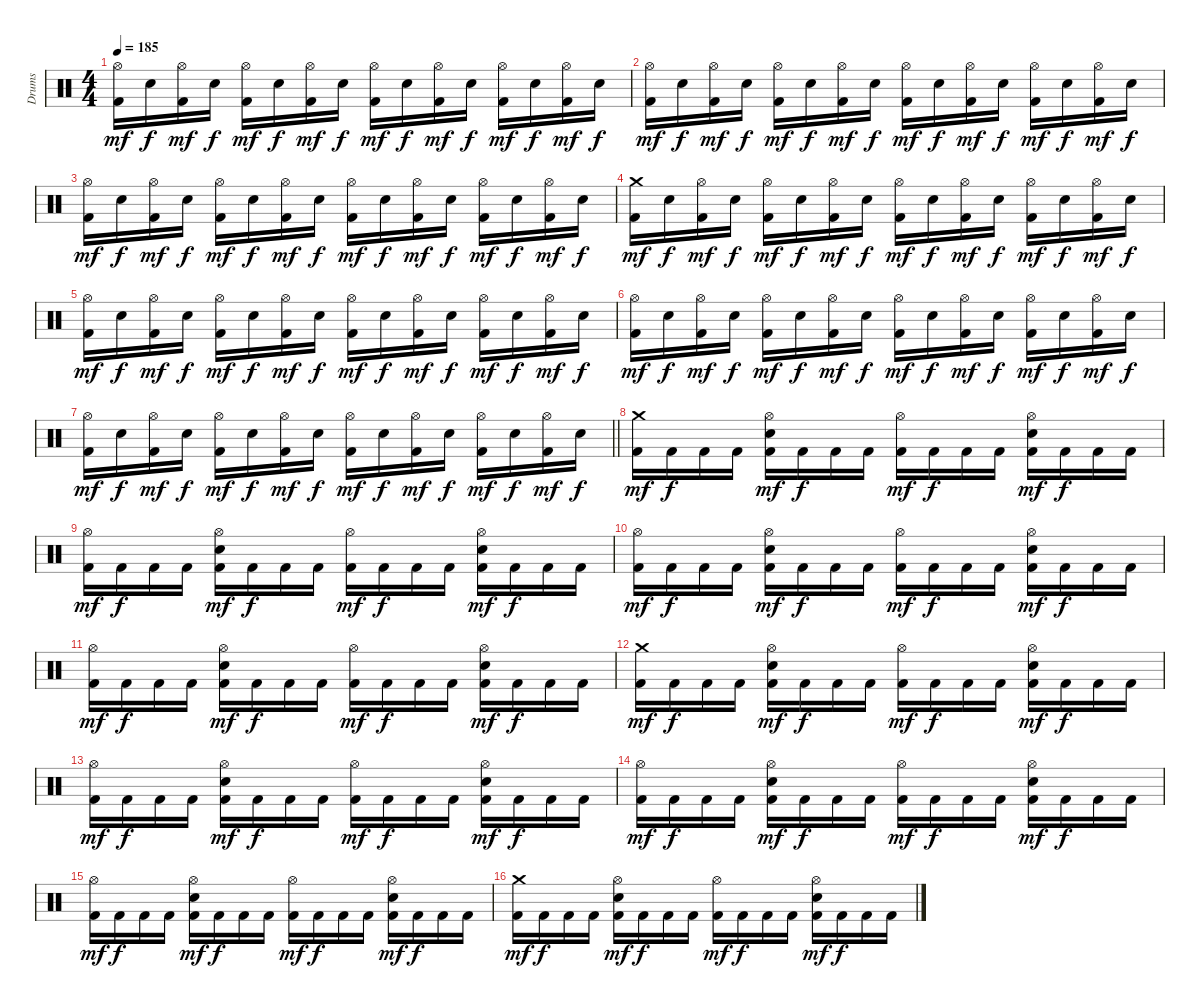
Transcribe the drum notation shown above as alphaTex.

\track ("Drums" "Drums") {instrument percussion}
\staff {score}
\articulation defaults
\ts (4 4)
\tempo 185
\clef neutral
\ks c
("Hi-Hat (open)" "Kick (hit) 2").16{dy mf} "Electric Snare (hit)".16{dy f} ("Hi-Hat (open)" "Kick (hit) 2").16{dy mf} "Electric Snare (hit)".16{dy f} ("Hi-Hat (open)" "Kick (hit) 2").16{dy mf} "Electric Snare (hit)".16{dy f} ("Hi-Hat (open)" "Kick (hit) 2").16{dy mf} "Electric Snare (hit)".16{dy f} ("Hi-Hat (open)" "Kick (hit) 2").16{dy mf} "Electric Snare (hit)".16{dy f} ("Hi-Hat (open)" "Kick (hit) 2").16{dy mf} "Electric Snare (hit)".16{dy f} ("Hi-Hat (open)" "Kick (hit) 2").16{dy mf} "Electric Snare (hit)".16{dy f} ("Hi-Hat (open)" "Kick (hit) 2").16{dy mf} "Electric Snare (hit)".16{dy f} |
("Hi-Hat (open)" "Kick (hit) 2").16{dy mf} "Electric Snare (hit)".16{dy f} ("Hi-Hat (open)" "Kick (hit) 2").16{dy mf} "Electric Snare (hit)".16{dy f} ("Hi-Hat (open)" "Kick (hit) 2").16{dy mf} "Electric Snare (hit)".16{dy f} ("Hi-Hat (open)" "Kick (hit) 2").16{dy mf} "Electric Snare (hit)".16{dy f} ("Hi-Hat (open)" "Kick (hit) 2").16{dy mf} "Electric Snare (hit)".16{dy f} ("Hi-Hat (open)" "Kick (hit) 2").16{dy mf} "Electric Snare (hit)".16{dy f} ("Hi-Hat (open)" "Kick (hit) 2").16{dy mf} "Electric Snare (hit)".16{dy f} ("Hi-Hat (open)" "Kick (hit) 2").16{dy mf} "Electric Snare (hit)".16{dy f} |
("Hi-Hat (open)" "Kick (hit) 2").16{dy mf} "Electric Snare (hit)".16{dy f} ("Hi-Hat (open)" "Kick (hit) 2").16{dy mf} "Electric Snare (hit)".16{dy f} ("Hi-Hat (open)" "Kick (hit) 2").16{dy mf} "Electric Snare (hit)".16{dy f} ("Hi-Hat (open)" "Kick (hit) 2").16{dy mf} "Electric Snare (hit)".16{dy f} ("Hi-Hat (open)" "Kick (hit) 2").16{dy mf} "Electric Snare (hit)".16{dy f} ("Hi-Hat (open)" "Kick (hit) 2").16{dy mf} "Electric Snare (hit)".16{dy f} ("Hi-Hat (open)" "Kick (hit) 2").16{dy mf} "Electric Snare (hit)".16{dy f} ("Hi-Hat (open)" "Kick (hit) 2").16{dy mf} "Electric Snare (hit)".16{dy f} |
("Crash medium (hit)" "Kick (hit) 2").16{dy mf} "Electric Snare (hit)".16{dy f} ("Hi-Hat (open)" "Kick (hit) 2").16{dy mf} "Electric Snare (hit)".16{dy f} ("Hi-Hat (open)" "Kick (hit) 2").16{dy mf} "Electric Snare (hit)".16{dy f} ("Hi-Hat (open)" "Kick (hit) 2").16{dy mf} "Electric Snare (hit)".16{dy f} ("Hi-Hat (open)" "Kick (hit) 2").16{dy mf} "Electric Snare (hit)".16{dy f} ("Hi-Hat (open)" "Kick (hit) 2").16{dy mf} "Electric Snare (hit)".16{dy f} ("Hi-Hat (open)" "Kick (hit) 2").16{dy mf} "Electric Snare (hit)".16{dy f} ("Hi-Hat (open)" "Kick (hit) 2").16{dy mf} "Electric Snare (hit)".16{dy f} |
("Hi-Hat (open)" "Kick (hit) 2").16{dy mf} "Electric Snare (hit)".16{dy f} ("Hi-Hat (open)" "Kick (hit) 2").16{dy mf} "Electric Snare (hit)".16{dy f} ("Hi-Hat (open)" "Kick (hit) 2").16{dy mf} "Electric Snare (hit)".16{dy f} ("Hi-Hat (open)" "Kick (hit) 2").16{dy mf} "Electric Snare (hit)".16{dy f} ("Hi-Hat (open)" "Kick (hit) 2").16{dy mf} "Electric Snare (hit)".16{dy f} ("Hi-Hat (open)" "Kick (hit) 2").16{dy mf} "Electric Snare (hit)".16{dy f} ("Hi-Hat (open)" "Kick (hit) 2").16{dy mf} "Electric Snare (hit)".16{dy f} ("Hi-Hat (open)" "Kick (hit) 2").16{dy mf} "Electric Snare (hit)".16{dy f} |
("Hi-Hat (open)" "Kick (hit) 2").16{dy mf} "Electric Snare (hit)".16{dy f} ("Hi-Hat (open)" "Kick (hit) 2").16{dy mf} "Electric Snare (hit)".16{dy f} ("Hi-Hat (open)" "Kick (hit) 2").16{dy mf} "Electric Snare (hit)".16{dy f} ("Hi-Hat (open)" "Kick (hit) 2").16{dy mf} "Electric Snare (hit)".16{dy f} ("Hi-Hat (open)" "Kick (hit) 2").16{dy mf} "Electric Snare (hit)".16{dy f} ("Hi-Hat (open)" "Kick (hit) 2").16{dy mf} "Electric Snare (hit)".16{dy f} ("Hi-Hat (open)" "Kick (hit) 2").16{dy mf} "Electric Snare (hit)".16{dy f} ("Hi-Hat (open)" "Kick (hit) 2").16{dy mf} "Electric Snare (hit)".16{dy f} |
\barLineRight lightlight
("Hi-Hat (open)" "Kick (hit) 2").16{dy mf} "Electric Snare (hit)".16{dy f} ("Hi-Hat (open)" "Kick (hit) 2").16{dy mf} "Electric Snare (hit)".16{dy f} ("Hi-Hat (open)" "Kick (hit) 2").16{dy mf} "Electric Snare (hit)".16{dy f} ("Hi-Hat (open)" "Kick (hit) 2").16{dy mf} "Electric Snare (hit)".16{dy f} ("Hi-Hat (open)" "Kick (hit) 2").16{dy mf} "Electric Snare (hit)".16{dy f} ("Hi-Hat (open)" "Kick (hit) 2").16{dy mf} "Electric Snare (hit)".16{dy f} ("Hi-Hat (open)" "Kick (hit) 2").16{dy mf} "Electric Snare (hit)".16{dy f} ("Hi-Hat (open)" "Kick (hit) 2").16{dy mf} "Electric Snare (hit)".16{dy f} |
\section ("" "")
("Crash medium (hit)" "Kick (hit) 2").16{dy mf} "Kick (hit) 2".16{dy f} "Kick (hit) 2".16 "Kick (hit) 2".16 ("Hi-Hat (open)" "Electric Snare (hit)" "Kick (hit) 2").16{dy mf} "Kick (hit) 2".16{dy f} "Kick (hit) 2".16 "Kick (hit) 2".16 ("Hi-Hat (open)" "Kick (hit) 2").16{dy mf} "Kick (hit) 2".16{dy f} "Kick (hit) 2".16 "Kick (hit) 2".16 ("Hi-Hat (open)" "Electric Snare (hit)" "Kick (hit) 2").16{dy mf} "Kick (hit) 2".16{dy f} "Kick (hit) 2".16 "Kick (hit) 2".16 |
("Hi-Hat (open)" "Kick (hit) 2").16{dy mf} "Kick (hit) 2".16{dy f} "Kick (hit) 2".16 "Kick (hit) 2".16 ("Hi-Hat (open)" "Electric Snare (hit)" "Kick (hit) 2").16{dy mf} "Kick (hit) 2".16{dy f} "Kick (hit) 2".16 "Kick (hit) 2".16 ("Hi-Hat (open)" "Kick (hit) 2").16{dy mf} "Kick (hit) 2".16{dy f} "Kick (hit) 2".16 "Kick (hit) 2".16 ("Hi-Hat (open)" "Electric Snare (hit)" "Kick (hit) 2").16{dy mf} "Kick (hit) 2".16{dy f} "Kick (hit) 2".16 "Kick (hit) 2".16 |
("Hi-Hat (open)" "Kick (hit) 2").16{dy mf} "Kick (hit) 2".16{dy f} "Kick (hit) 2".16 "Kick (hit) 2".16 ("Hi-Hat (open)" "Electric Snare (hit)" "Kick (hit) 2").16{dy mf} "Kick (hit) 2".16{dy f} "Kick (hit) 2".16 "Kick (hit) 2".16 ("Hi-Hat (open)" "Kick (hit) 2").16{dy mf} "Kick (hit) 2".16{dy f} "Kick (hit) 2".16 "Kick (hit) 2".16 ("Hi-Hat (open)" "Electric Snare (hit)" "Kick (hit) 2").16{dy mf} "Kick (hit) 2".16{dy f} "Kick (hit) 2".16 "Kick (hit) 2".16 |
("Hi-Hat (open)" "Kick (hit) 2").16{dy mf} "Kick (hit) 2".16{dy f} "Kick (hit) 2".16 "Kick (hit) 2".16 ("Hi-Hat (open)" "Electric Snare (hit)" "Kick (hit) 2").16{dy mf} "Kick (hit) 2".16{dy f} "Kick (hit) 2".16 "Kick (hit) 2".16 ("Hi-Hat (open)" "Kick (hit) 2").16{dy mf} "Kick (hit) 2".16{dy f} "Kick (hit) 2".16 "Kick (hit) 2".16 ("Hi-Hat (open)" "Electric Snare (hit)" "Kick (hit) 2").16{dy mf} "Kick (hit) 2".16{dy f} "Kick (hit) 2".16 "Kick (hit) 2".16 |
("Crash medium (hit)" "Kick (hit) 2").16{dy mf} "Kick (hit) 2".16{dy f} "Kick (hit) 2".16 "Kick (hit) 2".16 ("Hi-Hat (open)" "Electric Snare (hit)" "Kick (hit) 2").16{dy mf} "Kick (hit) 2".16{dy f} "Kick (hit) 2".16 "Kick (hit) 2".16 ("Hi-Hat (open)" "Kick (hit) 2").16{dy mf} "Kick (hit) 2".16{dy f} "Kick (hit) 2".16 "Kick (hit) 2".16 ("Hi-Hat (open)" "Electric Snare (hit)" "Kick (hit) 2").16{dy mf} "Kick (hit) 2".16{dy f} "Kick (hit) 2".16 "Kick (hit) 2".16 |
("Hi-Hat (open)" "Kick (hit) 2").16{dy mf} "Kick (hit) 2".16{dy f} "Kick (hit) 2".16 "Kick (hit) 2".16 ("Hi-Hat (open)" "Electric Snare (hit)" "Kick (hit) 2").16{dy mf} "Kick (hit) 2".16{dy f} "Kick (hit) 2".16 "Kick (hit) 2".16 ("Hi-Hat (open)" "Kick (hit) 2").16{dy mf} "Kick (hit) 2".16{dy f} "Kick (hit) 2".16 "Kick (hit) 2".16 ("Hi-Hat (open)" "Electric Snare (hit)" "Kick (hit) 2").16{dy mf} "Kick (hit) 2".16{dy f} "Kick (hit) 2".16 "Kick (hit) 2".16 |
("Hi-Hat (open)" "Kick (hit) 2").16{dy mf} "Kick (hit) 2".16{dy f} "Kick (hit) 2".16 "Kick (hit) 2".16 ("Hi-Hat (open)" "Electric Snare (hit)" "Kick (hit) 2").16{dy mf} "Kick (hit) 2".16{dy f} "Kick (hit) 2".16 "Kick (hit) 2".16 ("Hi-Hat (open)" "Kick (hit) 2").16{dy mf} "Kick (hit) 2".16{dy f} "Kick (hit) 2".16 "Kick (hit) 2".16 ("Hi-Hat (open)" "Electric Snare (hit)" "Kick (hit) 2").16{dy mf} "Kick (hit) 2".16{dy f} "Kick (hit) 2".16 "Kick (hit) 2".16 |
("Hi-Hat (open)" "Kick (hit) 2").16{dy mf} "Kick (hit) 2".16{dy f} "Kick (hit) 2".16 "Kick (hit) 2".16 ("Hi-Hat (open)" "Electric Snare (hit)" "Kick (hit) 2").16{dy mf} "Kick (hit) 2".16{dy f} "Kick (hit) 2".16 "Kick (hit) 2".16 ("Hi-Hat (open)" "Kick (hit) 2").16{dy mf} "Kick (hit) 2".16{dy f} "Kick (hit) 2".16 "Kick (hit) 2".16 ("Hi-Hat (open)" "Electric Snare (hit)" "Kick (hit) 2").16{dy mf} "Kick (hit) 2".16{dy f} "Kick (hit) 2".16 "Kick (hit) 2".16 |
("Crash medium (hit)" "Kick (hit) 2").16{dy mf} "Kick (hit) 2".16{dy f} "Kick (hit) 2".16 "Kick (hit) 2".16 ("Hi-Hat (open)" "Electric Snare (hit)" "Kick (hit) 2").16{dy mf} "Kick (hit) 2".16{dy f} "Kick (hit) 2".16 "Kick (hit) 2".16 ("Hi-Hat (open)" "Kick (hit) 2").16{dy mf} "Kick (hit) 2".16{dy f} "Kick (hit) 2".16 "Kick (hit) 2".16 ("Hi-Hat (open)" "Electric Snare (hit)" "Kick (hit) 2").16{dy mf} "Kick (hit) 2".16{dy f} "Kick (hit) 2".16 "Kick (hit) 2".16
